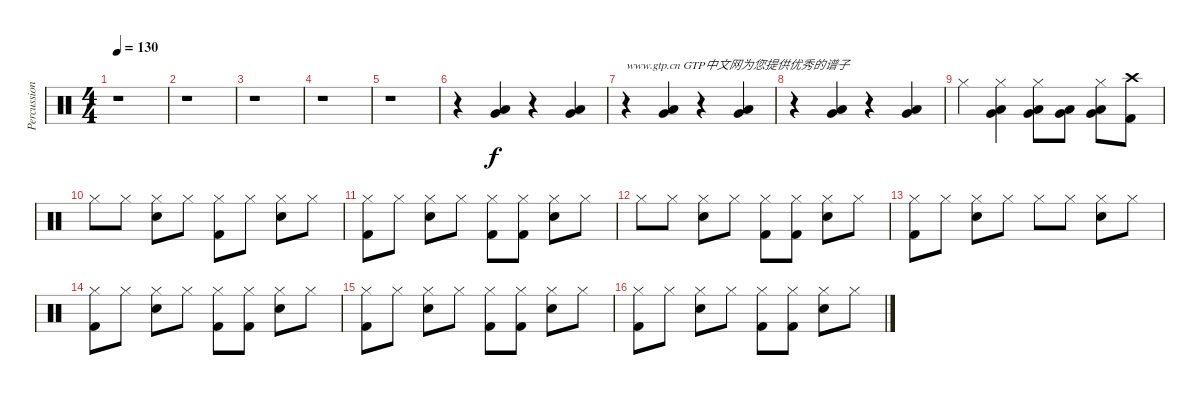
\track ("Percussion" "Percussion") {instrument percussion}
\staff {score}
\articulation defaults
\ts (4 4)
\tempo 130
\clef neutral
\ks c
r.1{dy f} |
r.1 |
r.1 |
r.1 |
r.1 |
r.4 ("Low Tom (hit)" "Very Low Tom (hit)").4 r.4 ("Low Tom (hit)" "Very Low Tom (hit)").4 |
r.4{txt "www.gtp.cn GTP中文网为您提供优秀的谱子"} ("Low Tom (hit)" "Very Low Tom (hit)").4 r.4 ("Low Tom (hit)" "Very Low Tom (hit)").4 |
r.4 ("Low Tom (hit)" "Very Low Tom (hit)").4 r.4 ("Low Tom (hit)" "Very Low Tom (hit)").4 |
"Hi-Hat (closed)".4 ("Hi-Hat (closed)" "Low Tom (hit)" "Very Low Tom (hit)").4 ("Hi-Hat (closed)" "Low Tom (hit)" "Very Low Tom (hit)").8 ("Low Tom (hit)" "Very Low Tom (hit)").8 ("Hi-Hat (closed)" "Low Tom (hit)" "Very Low Tom (hit)").8 ("Crash high (hit)" "Kick (hit) 2").8 |
"Hi-Hat (closed)".8 "Hi-Hat (closed)".8 ("Hi-Hat (closed)" "Metronome (bell)").8 "Hi-Hat (closed)".8 ("Hi-Hat (closed)" "Kick (hit) 2").8 "Hi-Hat (closed)".8 ("Hi-Hat (closed)" "Metronome (bell)").8 "Hi-Hat (closed)".8 |
("Hi-Hat (closed)" "Kick (hit) 2").8 "Hi-Hat (closed)".8 ("Hi-Hat (closed)" "Metronome (bell)").8 "Hi-Hat (closed)".8 ("Hi-Hat (closed)" "Kick (hit) 2").8 ("Hi-Hat (closed)" "Kick (hit) 2").8 ("Hi-Hat (closed)" "Metronome (bell)").8 "Hi-Hat (closed)".8 |
"Hi-Hat (closed)".8 "Hi-Hat (closed)".8 ("Hi-Hat (closed)" "Metronome (bell)").8 "Hi-Hat (closed)".8 ("Hi-Hat (closed)" "Kick (hit) 2").8 ("Hi-Hat (closed)" "Kick (hit) 2").8 ("Hi-Hat (closed)" "Metronome (bell)").8 "Hi-Hat (closed)".8 |
("Hi-Hat (closed)" "Kick (hit) 2").8 "Hi-Hat (closed)".8 ("Hi-Hat (closed)" "Metronome (bell)").8 "Hi-Hat (closed)".8 "Hi-Hat (closed)".8 "Hi-Hat (closed)".8 ("Hi-Hat (closed)" "Metronome (bell)").8 "Hi-Hat (closed)".8 |
("Hi-Hat (closed)" "Kick (hit) 2").8 "Hi-Hat (closed)".8 ("Hi-Hat (closed)" "Metronome (bell)").8 "Hi-Hat (closed)".8 ("Hi-Hat (closed)" "Kick (hit) 2").8 ("Hi-Hat (closed)" "Kick (hit) 2").8 ("Hi-Hat (closed)" "Metronome (bell)").8 "Hi-Hat (closed)".8 |
("Hi-Hat (closed)" "Kick (hit) 2").8 "Hi-Hat (closed)".8 ("Hi-Hat (closed)" "Metronome (bell)").8 "Hi-Hat (closed)".8 ("Hi-Hat (closed)" "Kick (hit) 2").8 ("Hi-Hat (closed)" "Kick (hit) 2").8 ("Hi-Hat (closed)" "Metronome (bell)").8 "Hi-Hat (closed)".8 |
("Hi-Hat (closed)" "Kick (hit) 2").8 "Hi-Hat (closed)".8 ("Hi-Hat (closed)" "Metronome (bell)").8 "Hi-Hat (closed)".8 ("Hi-Hat (closed)" "Kick (hit) 2").8 ("Hi-Hat (closed)" "Kick (hit) 2").8 ("Hi-Hat (closed)" "Metronome (bell)").8 "Hi-Hat (closed)".8
